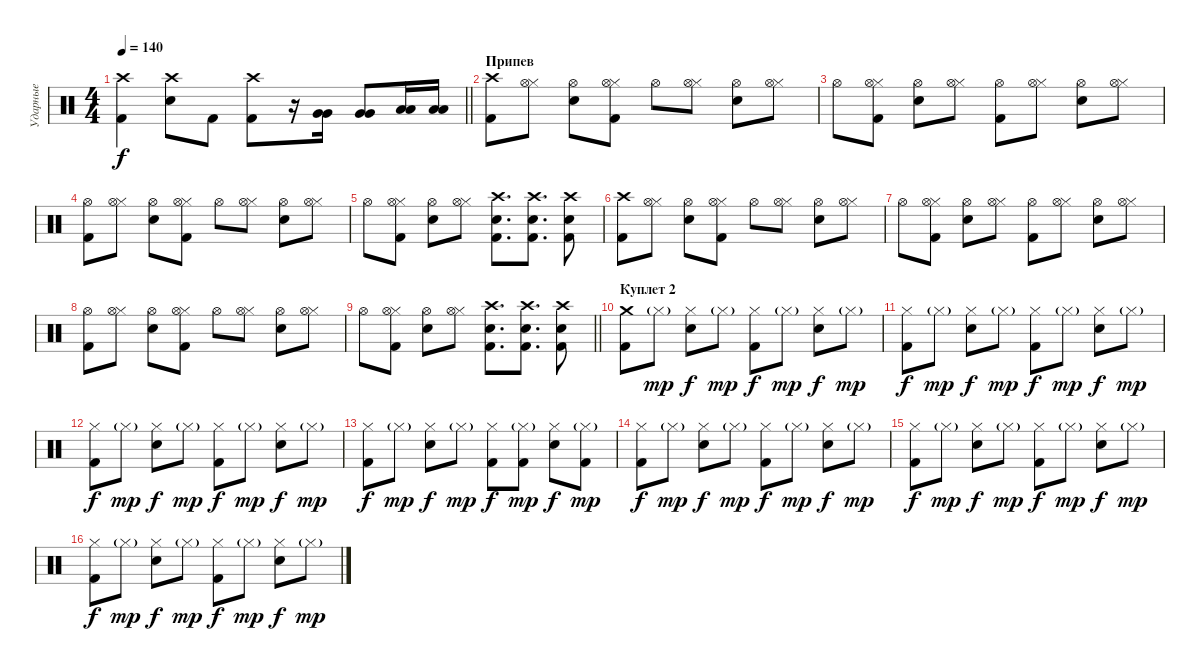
\track ("Ударные" "Ударные") {instrument percussion}
\staff {score}
\articulation defaults
\ts (4 4)
\tempo 140
\clef neutral
\barLineRight lightlight
\ks c
("Crash high (hit)" "Kick (hit) 2").4{dy f} ("Crash high (hit)" "Snare (hit) 2").8 "Kick (hit) 2".8 ("Crash high (hit)" "Kick (hit) 2").8 r.16 ("Very Low Tom (hit)" "Very Low Tom (hit)").16 ("Very Low Tom (hit)" "Very Low Tom (hit)").8 ("Low Tom (hit)" "Low Tom (hit)").16 ("Low Tom (hit)" "Low Tom (hit)").16 |
\section ("" "Припев")
("Crash high (hit)" "Kick (hit) 2").8 ("Hi-Hat (closed)" "Hi-Hat (open)").8 ("Hi-Hat (open)" "Snare (hit) 2").8 ("Hi-Hat (closed)" "Hi-Hat (open)" "Kick (hit) 2").8 "Hi-Hat (open)".8 ("Hi-Hat (closed)" "Hi-Hat (open)").8 ("Hi-Hat (open)" "Snare (hit) 2").8 ("Hi-Hat (closed)" "Hi-Hat (open)").8 |
"Hi-Hat (open)".8 ("Hi-Hat (closed)" "Hi-Hat (open)" "Kick (hit) 2").8 ("Hi-Hat (open)" "Snare (hit) 2").8 ("Hi-Hat (closed)" "Hi-Hat (open)").8 ("Hi-Hat (open)" "Kick (hit) 2").8 ("Hi-Hat (closed)" "Hi-Hat (open)").8 ("Hi-Hat (open)" "Snare (hit) 2").8 ("Hi-Hat (closed)" "Hi-Hat (open)").8 |
("Hi-Hat (open)" "Kick (hit) 2").8 ("Hi-Hat (closed)" "Hi-Hat (open)").8 ("Hi-Hat (open)" "Snare (hit) 2").8 ("Hi-Hat (closed)" "Hi-Hat (open)" "Kick (hit) 2").8 "Hi-Hat (open)".8 ("Hi-Hat (closed)" "Hi-Hat (open)").8 ("Hi-Hat (open)" "Snare (hit) 2").8 ("Hi-Hat (closed)" "Hi-Hat (open)").8 |
"Hi-Hat (open)".8 ("Hi-Hat (closed)" "Hi-Hat (open)" "Kick (hit) 2").8 ("Hi-Hat (open)" "Snare (hit) 2").8 ("Hi-Hat (closed)" "Hi-Hat (open)").8 ("Crash high (hit)" "Snare (hit) 2" "Kick (hit) 2").8{d} ("Crash high (hit)" "Snare (hit) 2" "Kick (hit) 2").8{d} ("Crash high (hit)" "Snare (hit) 2" "Kick (hit) 2").8 |
("Crash high (hit)" "Kick (hit) 2").8 ("Hi-Hat (closed)" "Hi-Hat (open)").8 ("Hi-Hat (open)" "Snare (hit) 2").8 ("Hi-Hat (closed)" "Hi-Hat (open)" "Kick (hit) 2").8 "Hi-Hat (open)".8 ("Hi-Hat (closed)" "Hi-Hat (open)").8 ("Hi-Hat (open)" "Snare (hit) 2").8 ("Hi-Hat (closed)" "Hi-Hat (open)").8 |
"Hi-Hat (open)".8 ("Hi-Hat (closed)" "Hi-Hat (open)" "Kick (hit) 2").8 ("Hi-Hat (open)" "Snare (hit) 2").8 ("Hi-Hat (closed)" "Hi-Hat (open)").8 ("Hi-Hat (open)" "Kick (hit) 2").8 ("Hi-Hat (closed)" "Hi-Hat (open)").8 ("Hi-Hat (open)" "Snare (hit) 2").8 ("Hi-Hat (closed)" "Hi-Hat (open)").8 |
("Hi-Hat (open)" "Kick (hit) 2").8 ("Hi-Hat (closed)" "Hi-Hat (open)").8 ("Hi-Hat (open)" "Snare (hit) 2").8 ("Hi-Hat (closed)" "Hi-Hat (open)" "Kick (hit) 2").8 "Hi-Hat (open)".8 ("Hi-Hat (closed)" "Hi-Hat (open)").8 ("Hi-Hat (open)" "Snare (hit) 2").8 ("Hi-Hat (closed)" "Hi-Hat (open)").8 |
\barLineRight lightlight "Hi-Hat (open)".8
("Hi-Hat (closed)" "Hi-Hat (open)" "Kick (hit) 2").8 ("Hi-Hat (open)" "Snare (hit) 2").8 ("Hi-Hat (closed)" "Hi-Hat (open)").8 ("Crash high (hit)" "Snare (hit) 2" "Kick (hit) 2").8{d} ("Crash high (hit)" "Snare (hit) 2" "Kick (hit) 2").8{d} ("Crash high (hit)" "Snare (hit) 2" "Kick (hit) 2").8 |
\section ("" "Куплет 2")
("Crash medium (hit)" "Kick (hit) 2").8 "Hi-Hat (closed)"{g}.8{dy mp} ("Hi-Hat (closed)" "Snare (hit) 2").8{dy f} "Hi-Hat (closed)"{g}.8{dy mp} ("Hi-Hat (closed)" "Kick (hit) 2").8{dy f} "Hi-Hat (closed)"{g}.8{dy mp} ("Hi-Hat (closed)" "Snare (hit) 2").8{dy f} "Hi-Hat (closed)"{g}.8{dy mp} |
("Hi-Hat (closed)" "Kick (hit) 2").8{dy f} "Hi-Hat (closed)"{g}.8{dy mp} ("Hi-Hat (closed)" "Snare (hit) 2").8{dy f} "Hi-Hat (closed)"{g}.8{dy mp} ("Hi-Hat (closed)" "Kick (hit) 2").8{dy f} "Hi-Hat (closed)"{g}.8{dy mp} ("Hi-Hat (closed)" "Snare (hit) 2").8{dy f} "Hi-Hat (closed)"{g}.8{dy mp} |
("Hi-Hat (closed)" "Kick (hit) 2").8{dy f} "Hi-Hat (closed)"{g}.8{dy mp} ("Hi-Hat (closed)" "Snare (hit) 2").8{dy f} "Hi-Hat (closed)"{g}.8{dy mp} ("Hi-Hat (closed)" "Kick (hit) 2").8{dy f} "Hi-Hat (closed)"{g}.8{dy mp} ("Hi-Hat (closed)" "Snare (hit) 2").8{dy f} "Hi-Hat (closed)"{g}.8{dy mp} |
("Hi-Hat (closed)" "Kick (hit) 2").8{dy f} "Hi-Hat (closed)"{g}.8{dy mp} ("Hi-Hat (closed)" "Snare (hit) 2").8{dy f} "Hi-Hat (closed)"{g}.8{dy mp} ("Hi-Hat (closed)" "Kick (hit) 2").8{dy f} ("Hi-Hat (closed)"{g} "Kick (hit) 2").8{dy mp} ("Hi-Hat (closed)" "Snare (hit) 2").8{dy f} ("Hi-Hat (closed)"{g} "Kick (hit) 2").8{dy mp} |
("Hi-Hat (closed)" "Kick (hit) 2").8{dy f} "Hi-Hat (closed)"{g}.8{dy mp} ("Hi-Hat (closed)" "Snare (hit) 2").8{dy f} "Hi-Hat (closed)"{g}.8{dy mp} ("Hi-Hat (closed)" "Kick (hit) 2").8{dy f} "Hi-Hat (closed)"{g}.8{dy mp} ("Hi-Hat (closed)" "Snare (hit) 2").8{dy f} "Hi-Hat (closed)"{g}.8{dy mp} |
("Hi-Hat (closed)" "Kick (hit) 2").8{dy f} "Hi-Hat (closed)"{g}.8{dy mp} ("Hi-Hat (closed)" "Snare (hit) 2").8{dy f} "Hi-Hat (closed)"{g}.8{dy mp} ("Hi-Hat (closed)" "Kick (hit) 2").8{dy f} "Hi-Hat (closed)"{g}.8{dy mp} ("Hi-Hat (closed)" "Snare (hit) 2").8{dy f} "Hi-Hat (closed)"{g}.8{dy mp} |
("Hi-Hat (closed)" "Kick (hit) 2").8{dy f} "Hi-Hat (closed)"{g}.8{dy mp} ("Hi-Hat (closed)" "Snare (hit) 2").8{dy f} "Hi-Hat (closed)"{g}.8{dy mp} ("Hi-Hat (closed)" "Kick (hit) 2").8{dy f} "Hi-Hat (closed)"{g}.8{dy mp} ("Hi-Hat (closed)" "Snare (hit) 2").8{dy f} "Hi-Hat (closed)"{g}.8{dy mp}
